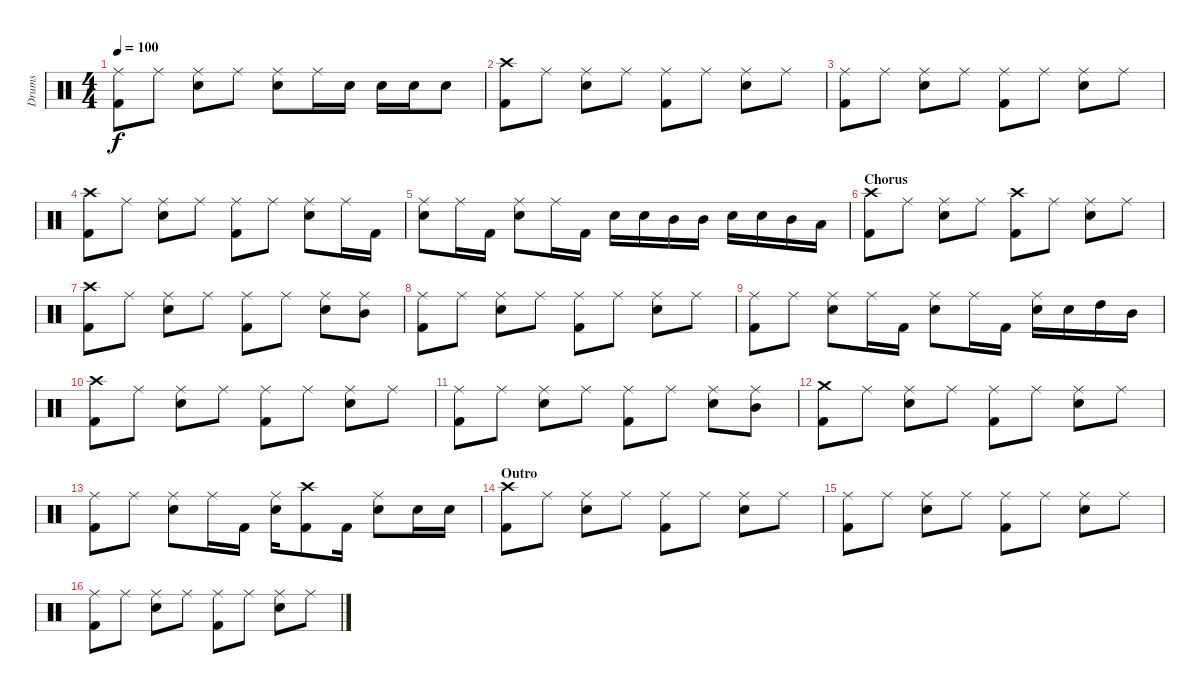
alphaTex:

\track ("Drums" "Drums") {instrument percussion}
\staff {score}
\articulation defaults
\ts (4 4)
\tempo 100
\clef neutral
\ks c
("Ride (middle)" "Kick (hit) 2").8{dy f} "Ride (middle)".8 ("Ride (middle)" "Snare (hit) 2").8 "Ride (middle)".8 ("Ride (middle)" "Snare (hit) 2").8 "Ride (middle)".16 "Snare (hit) 2".16 "Snare (hit) 2".16 "Snare (hit) 2".16 "Snare (hit) 2".8 |
("Crash high (hit)" "Kick (hit) 2").8 "Ride (middle)".8 ("Ride (middle)" "Snare (hit) 2").8 "Ride (middle)".8 ("Ride (middle)" "Kick (hit) 2").8 "Ride (middle)".8 ("Ride (middle)" "Snare (hit) 2").8 "Ride (middle)".8 |
("Ride (middle)" "Kick (hit) 2").8 "Ride (middle)".8 ("Ride (middle)" "Snare (hit) 2").8 "Ride (middle)".8 ("Ride (middle)" "Kick (hit) 2").8 "Ride (middle)".8 ("Ride (middle)" "Snare (hit) 2").8 "Ride (middle)".8 |
("Crash high (hit)" "Kick (hit) 2").8 "Ride (middle)".8 ("Ride (middle)" "Snare (hit) 2").8 "Ride (middle)".8 ("Ride (middle)" "Kick (hit) 2").8 "Ride (middle)".8 ("Ride (middle)" "Snare (hit) 2").8 "Ride (middle)".16 "Kick (hit) 2".16 |
("Ride (middle)" "Snare (hit) 2").8 "Ride (middle)".16 "Kick (hit) 2".16 ("Ride (middle)" "Snare (hit) 2").8 "Ride (middle)".16 "Kick (hit) 2".16 "Snare (hit) 2".16 "Snare (hit) 2".16 "Mid Tom (hit)".16 "Mid Tom (hit)".16 "Snare (hit) 2".16 "Snare (hit) 2".16 "Mid Tom (hit)".16 "Low Tom (hit)".16 |
\section ("" "Chorus")
("Crash high (hit)" "Kick (hit) 2").8 "Ride (middle)".8 ("Ride (middle)" "Snare (hit) 2").8 "Ride (middle)".8 ("Crash high (hit)" "Kick (hit) 2").8 "Ride (middle)".8 ("Ride (middle)" "Snare (hit) 2").8 "Ride (middle)".8 |
("Crash high (hit)" "Kick (hit) 2").8 "Ride (middle)".8 ("Ride (middle)" "Snare (hit) 2").8 "Ride (middle)".8 ("Ride (middle)" "Kick (hit) 2").8 "Ride (middle)".8 ("Ride (middle)" "Snare (hit) 2").8 ("Ride (middle)" "Mid Tom (hit)").8 |
("Ride (middle)" "Kick (hit) 2").8 "Ride (middle)".8 ("Ride (middle)" "Snare (hit) 2").8 "Ride (middle)".8 ("Ride (middle)" "Kick (hit) 2").8 "Ride (middle)".8 ("Ride (middle)" "Snare (hit) 2").8 "Ride (middle)".8 |
("Ride (middle)" "Kick (hit) 2").8 "Ride (middle)".8 ("Ride (middle)" "Snare (hit) 2").8 "Ride (middle)".16 "Kick (hit) 2".16 ("Ride (middle)" "Snare (hit) 2").8 "Ride (middle)".16 "Kick (hit) 2".16 ("Ride (middle)" "Snare (hit) 2").16 "Snare (hit) 2".16 "High Tom (hit)".16 "Mid Tom (hit)".16 |
("Crash high (hit)" "Kick (hit) 2").8 "Ride (middle)".8 ("Ride (middle)" "Snare (hit) 2").8 "Ride (middle)".8 ("Ride (middle)" "Kick (hit) 2").8 "Ride (middle)".8 ("Ride (middle)" "Snare (hit) 2").8 "Ride (middle)".8 |
("Ride (middle)" "Kick (hit) 2").8 "Ride (middle)".8 ("Ride (middle)" "Snare (hit) 2").8 "Ride (middle)".8 ("Ride (middle)" "Kick (hit) 2").8 "Ride (middle)".8 ("Ride (middle)" "Snare (hit) 2").8 ("Ride (middle)" "Mid Tom (hit)").8 |
("Crash medium (hit)" "Kick (hit) 2").8 "Ride (middle)".8 ("Ride (middle)" "Snare (hit) 2").8 "Ride (middle)".8 ("Ride (middle)" "Kick (hit) 2").8 "Ride (middle)".8 ("Ride (middle)" "Snare (hit) 2").8 "Ride (middle)".8 |
("Ride (middle)" "Kick (hit) 2").8 "Ride (middle)".8 ("Ride (middle)" "Snare (hit) 2").8 "Ride (middle)".16 "Kick (hit) 2".16 ("Ride (middle)" "Snare (hit) 2").16 ("Crash high (hit)" "Kick (hit) 2").8 "Kick (hit) 2".16 ("Ride (middle)" "Snare (hit) 2").8 "Snare (hit) 2".16 "Snare (hit) 2".16 |
\section ("" "Outro")
("Crash high (hit)" "Kick (hit) 2").8 "Ride (middle)".8 ("Ride (middle)" "Snare (hit) 2").8 "Ride (middle)".8 ("Ride (middle)" "Kick (hit) 2").8 "Ride (middle)".8 ("Ride (middle)" "Snare (hit) 2").8 "Ride (middle)".8 |
("Ride (middle)" "Kick (hit) 2").8 "Ride (middle)".8 ("Ride (middle)" "Snare (hit) 2").8 "Ride (middle)".8 ("Ride (middle)" "Kick (hit) 2").8 "Ride (middle)".8 ("Ride (middle)" "Snare (hit) 2").8 "Ride (middle)".8 |
("Ride (middle)" "Kick (hit) 2").8 "Ride (middle)".8 ("Ride (middle)" "Snare (hit) 2").8 "Ride (middle)".8 ("Ride (middle)" "Kick (hit) 2").8 "Ride (middle)".8 ("Ride (middle)" "Snare (hit) 2").8 "Ride (middle)".8
